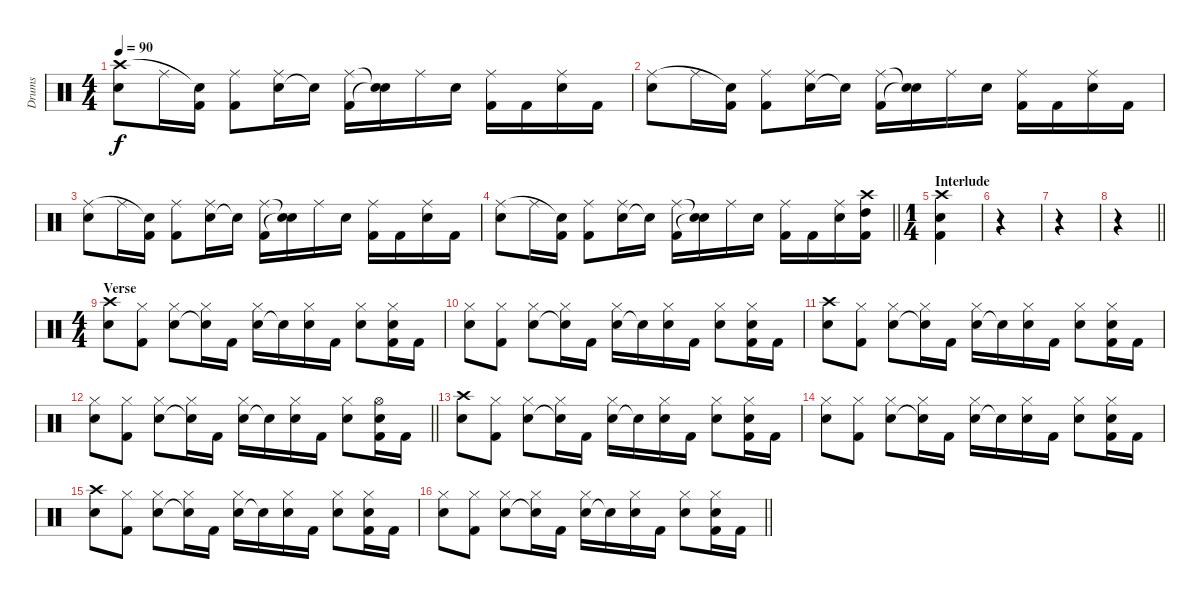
\track ("Drums" "Drums") {instrument percussion}
\staff {score}
\articulation defaults
\ts (4 4)
\tempo 90
\clef neutral
\ks c
("Electric Snare (hit)" "Crash high (hit)").8{dy f} "Ride (middle)".16 ("Kick (hit) 2" "Snare (hit)"{t}).16 ("Kick (hit) 2" "Ride (middle)").8 ("Electric Snare (hit)" "Ride (middle)").16 "Snare (hit)"{t}.16 ("Kick (hit) 2" "Ride (middle)").16 ("Snare (hit)"{t} "Snare (hit)"{t}).16 "Ride (middle)".16 "Electric Snare (hit)".16 ("Kick (hit) 2" "Ride (middle)").16 "Kick (hit) 2".16 ("Electric Snare (hit)" "Ride (middle)").16 "Kick (hit) 2".16 |
("Electric Snare (hit)" "Ride (middle)").8 "Ride (middle)".16 ("Kick (hit) 2" "Snare (hit)"{t}).16 ("Kick (hit) 2" "Ride (middle)").8 ("Electric Snare (hit)" "Ride (middle)").16 "Snare (hit)"{t}.16 ("Kick (hit) 2" "Ride (middle)").16 ("Snare (hit)"{t} "Snare (hit)"{t}).16 "Ride (middle)".16 "Electric Snare (hit)".16 ("Kick (hit) 2" "Ride (middle)").16 "Kick (hit) 2".16 ("Electric Snare (hit)" "Ride (middle)").16 "Kick (hit) 2".16 |
("Electric Snare (hit)" "Ride (middle)").8 "Ride (middle)".16 ("Kick (hit) 2" "Snare (hit)"{t}).16 ("Kick (hit) 2" "Ride (middle)").8 ("Electric Snare (hit)" "Ride (middle)").16 "Snare (hit)"{t}.16 ("Kick (hit) 2" "Ride (middle)").16 ("Snare (hit)"{t} "Snare (hit)"{t}).16 "Ride (middle)".16 "Electric Snare (hit)".16 ("Kick (hit) 2" "Ride (middle)").16 "Kick (hit) 2".16 ("Electric Snare (hit)" "Ride (middle)").16 "Kick (hit) 2".16 |
\barLineRight lightlight
("Electric Snare (hit)" "Ride (middle)").8 "Ride (middle)".16 ("Kick (hit) 2" "Snare (hit)"{t}).16 ("Kick (hit) 2" "Ride (middle)").8 ("Electric Snare (hit)" "Ride (middle)").16 "Snare (hit)"{t}.16 ("Kick (hit) 2" "Ride (middle)").16 ("Snare (hit)"{t} "Snare (hit)"{t}).16 "Ride (middle)".16 "Electric Snare (hit)".16 ("Kick (hit) 2" "Ride (middle)").16 "Kick (hit) 2".16 ("Electric Snare (hit)" "Ride (middle)").16 ("Kick (hit) 2" "High Tom (hit)" "Crash high (hit)").16 |
\ts (1 4)
\section ("" "Interlude")
("Kick (hit) 2" "Snare (hit) 2" "Crash high (hit)").4 |
r.4 |
r.4 |
\barLineRight lightlight
r.4 |
\ts (4 4)
\section ("" "Verse")
("Electric Snare (hit)" "Crash high (hit)").8 ("Kick (hit) 2" "Hi-Hat (closed)").8 ("Electric Snare (hit)" "Hi-Hat (closed)").8 ("Snare (hit)"{t} "Hi-Hat (closed)").16 "Kick (hit) 2".16 ("Electric Snare (hit)" "Hi-Hat (closed)").16 "Snare (hit)"{t}.16 ("Electric Snare (hit)" "Hi-Hat (closed)").16 "Kick (hit) 2".16 ("Electric Snare (hit)" "Hi-Hat (closed)").8 ("Kick (hit) 2" "Electric Snare (hit)" "Hi-Hat (closed)").16 "Kick (hit) 2".16 |
("Electric Snare (hit)" "Hi-Hat (closed)").8 ("Kick (hit) 2" "Hi-Hat (closed)").8 ("Electric Snare (hit)" "Hi-Hat (closed)").8 ("Snare (hit)"{t} "Hi-Hat (closed)").16 "Kick (hit) 2".16 ("Electric Snare (hit)" "Hi-Hat (closed)").16 "Snare (hit)"{t}.16 ("Electric Snare (hit)" "Hi-Hat (closed)").16 "Kick (hit) 2".16 ("Electric Snare (hit)" "Hi-Hat (closed)").8 ("Kick (hit) 2" "Electric Snare (hit)" "Hi-Hat (closed)").16 "Kick (hit) 2".16 |
("Electric Snare (hit)" "Crash high (hit)").8 ("Kick (hit) 2" "Hi-Hat (closed)").8 ("Electric Snare (hit)" "Hi-Hat (closed)").8 ("Snare (hit)"{t} "Hi-Hat (closed)").16 "Kick (hit) 2".16 ("Electric Snare (hit)" "Hi-Hat (closed)").16 "Snare (hit)"{t}.16 ("Electric Snare (hit)" "Hi-Hat (closed)").16 "Kick (hit) 2".16 ("Electric Snare (hit)" "Hi-Hat (closed)").8 ("Kick (hit) 2" "Electric Snare (hit)" "Hi-Hat (closed)").16 "Kick (hit) 2".16 |
\barLineRight lightlight
("Electric Snare (hit)" "Hi-Hat (closed)").8 ("Kick (hit) 2" "Hi-Hat (closed)").8 ("Electric Snare (hit)" "Hi-Hat (closed)").8 ("Snare (hit)"{t} "Hi-Hat (closed)").16 "Kick (hit) 2".16 ("Electric Snare (hit)" "Hi-Hat (closed)").16 "Snare (hit)"{t}.16 ("Electric Snare (hit)" "Hi-Hat (closed)").16 "Kick (hit) 2".16 ("Electric Snare (hit)" "Hi-Hat (closed)").8 ("Kick (hit) 2" "Electric Snare (hit)" "Hi-Hat (open)").16 "Kick (hit) 2".16 |
("Electric Snare (hit)" "Crash high (hit)").8 ("Kick (hit) 2" "Hi-Hat (closed)").8 ("Electric Snare (hit)" "Hi-Hat (closed)").8 ("Snare (hit)"{t} "Hi-Hat (closed)").16 "Kick (hit) 2".16 ("Electric Snare (hit)" "Hi-Hat (closed)").16 "Snare (hit)"{t}.16 ("Electric Snare (hit)" "Hi-Hat (closed)").16 "Kick (hit) 2".16 ("Electric Snare (hit)" "Hi-Hat (closed)").8 ("Kick (hit) 2" "Electric Snare (hit)" "Hi-Hat (closed)").16 "Kick (hit) 2".16 |
("Electric Snare (hit)" "Hi-Hat (closed)").8 ("Kick (hit) 2" "Hi-Hat (closed)").8 ("Electric Snare (hit)" "Hi-Hat (closed)").8 ("Snare (hit)"{t} "Hi-Hat (closed)").16 "Kick (hit) 2".16 ("Electric Snare (hit)" "Hi-Hat (closed)").16 "Snare (hit)"{t}.16 ("Electric Snare (hit)" "Hi-Hat (closed)").16 "Kick (hit) 2".16 ("Electric Snare (hit)" "Hi-Hat (closed)").8 ("Kick (hit) 2" "Electric Snare (hit)" "Hi-Hat (closed)").16 "Kick (hit) 2".16 |
("Electric Snare (hit)" "Crash high (hit)").8 ("Kick (hit) 2" "Hi-Hat (closed)").8 ("Electric Snare (hit)" "Hi-Hat (closed)").8 ("Snare (hit)"{t} "Hi-Hat (closed)").16 "Kick (hit) 2".16 ("Electric Snare (hit)" "Hi-Hat (closed)").16 "Snare (hit)"{t}.16 ("Electric Snare (hit)" "Hi-Hat (closed)").16 "Kick (hit) 2".16 ("Electric Snare (hit)" "Hi-Hat (closed)").8 ("Kick (hit) 2" "Electric Snare (hit)" "Hi-Hat (closed)").16 "Kick (hit) 2".16 |
\barLineRight lightlight
("Electric Snare (hit)" "Hi-Hat (closed)").8 ("Kick (hit) 2" "Hi-Hat (closed)").8 ("Electric Snare (hit)" "Hi-Hat (closed)").8 ("Snare (hit)"{t} "Hi-Hat (closed)").16 "Kick (hit) 2".16 ("Electric Snare (hit)" "Hi-Hat (closed)").16 "Snare (hit)"{t}.16 ("Electric Snare (hit)" "Hi-Hat (closed)").16 "Kick (hit) 2".16 ("Electric Snare (hit)" "Hi-Hat (closed)").8 ("Kick (hit) 2" "Electric Snare (hit)" "Hi-Hat (closed)").16 "Kick (hit) 2".16
